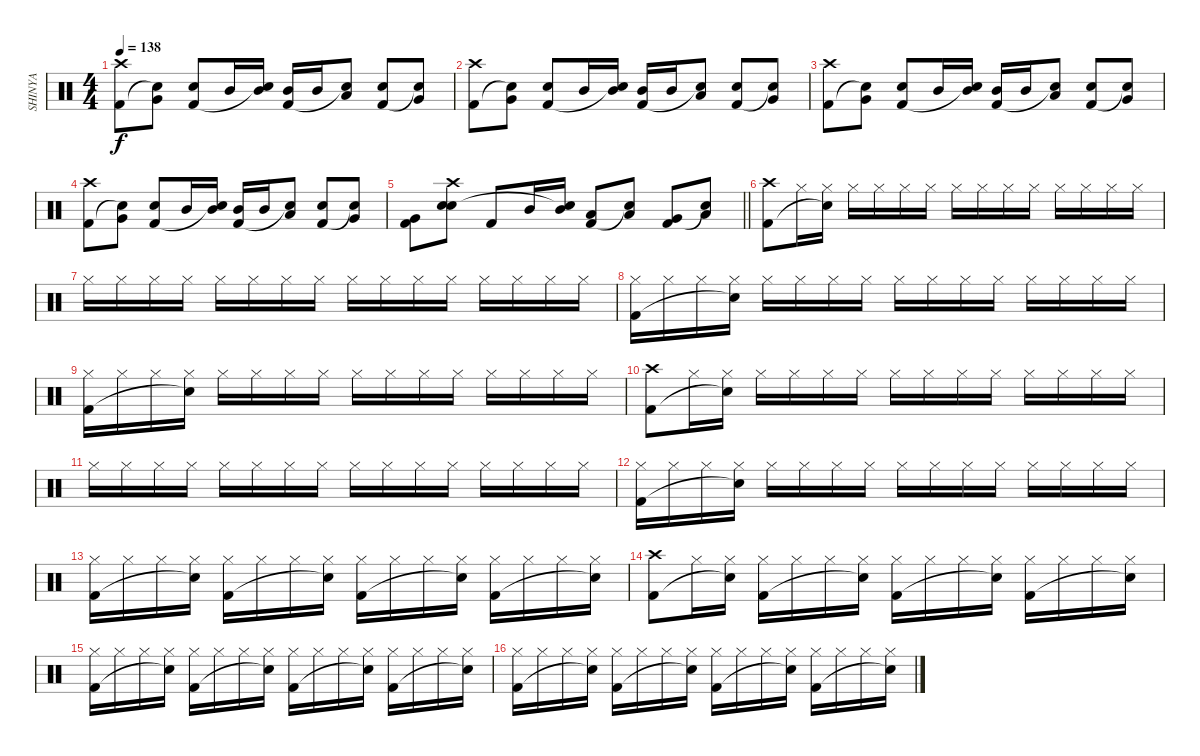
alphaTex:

\track ("SHINYA" "SHINYA") {instrument percussion}
\staff {score}
\articulation defaults
\ts (4 4)
\tempo 138
\clef neutral
\ks c
("Crash high (hit)" "Kick (hit) 2").8{dy f} ("Very Low Tom (hit)" "Snare (hit)"{t}).8 ("Electric Snare (hit)" "Kick (hit) 2").8 "Mid Tom (hit)".16 ("Mid Tom (hit)" "Snare (hit)"{t}).16 ("Mid Tom (hit)" "Kick (hit) 2").16 "Mid Tom (hit)".16 ("Low Tom (hit)" "Snare (hit)"{t}).8 ("Electric Snare (hit)" "Kick (hit) 2").8 ("Very Low Tom (hit)" "Snare (hit)"{t}).8 |
("Crash high (hit)" "Kick (hit) 2").8 ("Very Low Tom (hit)" "Snare (hit)"{t}).8 ("Electric Snare (hit)" "Kick (hit) 2").8 "Mid Tom (hit)".16 ("Mid Tom (hit)" "Snare (hit)"{t}).16 ("Mid Tom (hit)" "Kick (hit) 2").16 "Mid Tom (hit)".16 ("Low Tom (hit)" "Snare (hit)"{t}).8 ("Electric Snare (hit)" "Kick (hit) 2").8 ("Very Low Tom (hit)" "Snare (hit)"{t}).8 |
("Crash high (hit)" "Kick (hit) 2").8 ("Very Low Tom (hit)" "Snare (hit)"{t}).8 ("Electric Snare (hit)" "Kick (hit) 2").8 "Mid Tom (hit)".16 ("Mid Tom (hit)" "Snare (hit)"{t}).16 ("Mid Tom (hit)" "Kick (hit) 2").16 "Mid Tom (hit)".16 ("Low Tom (hit)" "Snare (hit)"{t}).8 ("Electric Snare (hit)" "Kick (hit) 2").8 ("Very Low Tom (hit)" "Snare (hit)"{t}).8 |
("Crash high (hit)" "Kick (hit) 2").8 ("Very Low Tom (hit)" "Snare (hit)"{t}).8 ("Electric Snare (hit)" "Kick (hit) 2").8 "Mid Tom (hit)".16 ("Mid Tom (hit)" "Snare (hit)"{t}).16 ("Mid Tom (hit)" "Kick (hit) 2").16 "Mid Tom (hit)".16 ("Low Tom (hit)" "Snare (hit)"{t}).8 ("Electric Snare (hit)" "Kick (hit) 2").8 ("Very Low Tom (hit)" "Snare (hit)"{t}).8 |
\barLineRight lightlight
("Very Low Tom (hit)" "Kick (hit) 2").8 ("Crash high (hit)" "Electric Snare (hit)" "Snare (hit)").8 "Kick (hit) 2".8 "Mid Tom (hit)".16 ("Mid Tom (hit)" "Snare (hit)"{t}).16 ("Low Tom (hit)" "Kick (hit) 2").8 ("Low Tom (hit)" "Snare (hit)"{t}).8 ("Very Low Tom (hit)" "Kick (hit) 2").8 ("Low Floor Tom (hit)" "Snare (hit)"{t}).8 |
("Crash high (hit)" "Kick (hit) 2").8 "Hi-Hat (closed)".16 ("Hi-Hat (closed)" "Snare (hit)"{t}).16 "Hi-Hat (closed)".16 "Hi-Hat (closed)".16 "Hi-Hat (closed)".16 "Hi-Hat (closed)".16 "Hi-Hat (closed)".16 "Hi-Hat (closed)".16 "Hi-Hat (closed)".16 "Hi-Hat (closed)".16 "Hi-Hat (closed)".16 "Hi-Hat (closed)".16 "Hi-Hat (closed)".16 "Hi-Hat (closed)".16 |
"Hi-Hat (closed)".16 "Hi-Hat (closed)".16 "Hi-Hat (closed)".16 "Hi-Hat (closed)".16 "Hi-Hat (closed)".16 "Hi-Hat (closed)".16 "Hi-Hat (closed)".16 "Hi-Hat (closed)".16 "Hi-Hat (closed)".16 "Hi-Hat (closed)".16 "Hi-Hat (closed)".16 "Hi-Hat (closed)".16 "Hi-Hat (closed)".16 "Hi-Hat (closed)".16 "Hi-Hat (closed)".16 "Hi-Hat (closed)".16 |
("Hi-Hat (closed)" "Kick (hit) 2").16 "Hi-Hat (closed)".16 "Hi-Hat (closed)".16 ("Hi-Hat (closed)" "Snare (hit)"{t}).16 "Hi-Hat (closed)".16 "Hi-Hat (closed)".16 "Hi-Hat (closed)".16 "Hi-Hat (closed)".16 "Hi-Hat (closed)".16 "Hi-Hat (closed)".16 "Hi-Hat (closed)".16 "Hi-Hat (closed)".16 "Hi-Hat (closed)".16 "Hi-Hat (closed)".16 "Hi-Hat (closed)".16 "Hi-Hat (closed)".16 |
("Hi-Hat (closed)" "Kick (hit) 2").16 "Hi-Hat (closed)".16 "Hi-Hat (closed)".16 ("Hi-Hat (closed)" "Snare (hit)"{t}).16 "Hi-Hat (closed)".16 "Hi-Hat (closed)".16 "Hi-Hat (closed)".16 "Hi-Hat (closed)".16 "Hi-Hat (closed)".16 "Hi-Hat (closed)".16 "Hi-Hat (closed)".16 "Hi-Hat (closed)".16 "Hi-Hat (closed)".16 "Hi-Hat (closed)".16 "Hi-Hat (closed)".16 "Hi-Hat (closed)".16 |
("Crash high (hit)" "Kick (hit) 2").8 "Hi-Hat (closed)".16 ("Hi-Hat (closed)" "Snare (hit)"{t}).16 "Hi-Hat (closed)".16 "Hi-Hat (closed)".16 "Hi-Hat (closed)".16 "Hi-Hat (closed)".16 "Hi-Hat (closed)".16 "Hi-Hat (closed)".16 "Hi-Hat (closed)".16 "Hi-Hat (closed)".16 "Hi-Hat (closed)".16 "Hi-Hat (closed)".16 "Hi-Hat (closed)".16 "Hi-Hat (closed)".16 |
"Hi-Hat (closed)".16 "Hi-Hat (closed)".16 "Hi-Hat (closed)".16 "Hi-Hat (closed)".16 "Hi-Hat (closed)".16 "Hi-Hat (closed)".16 "Hi-Hat (closed)".16 "Hi-Hat (closed)".16 "Hi-Hat (closed)".16 "Hi-Hat (closed)".16 "Hi-Hat (closed)".16 "Hi-Hat (closed)".16 "Hi-Hat (closed)".16 "Hi-Hat (closed)".16 "Hi-Hat (closed)".16 "Hi-Hat (closed)".16 |
("Hi-Hat (closed)" "Kick (hit) 2").16 "Hi-Hat (closed)".16 "Hi-Hat (closed)".16 ("Hi-Hat (closed)" "Snare (hit)"{t}).16 "Hi-Hat (closed)".16 "Hi-Hat (closed)".16 "Hi-Hat (closed)".16 "Hi-Hat (closed)".16 "Hi-Hat (closed)".16 "Hi-Hat (closed)".16 "Hi-Hat (closed)".16 "Hi-Hat (closed)".16 "Hi-Hat (closed)".16 "Hi-Hat (closed)".16 "Hi-Hat (closed)".16 "Hi-Hat (closed)".16 |
("Hi-Hat (closed)" "Kick (hit) 2").16 "Hi-Hat (closed)".16 "Hi-Hat (closed)".16 ("Hi-Hat (closed)" "Snare (hit)"{t}).16 ("Hi-Hat (closed)" "Kick (hit) 2").16 "Hi-Hat (closed)".16 "Hi-Hat (closed)".16 ("Hi-Hat (closed)" "Snare (hit)"{t}).16 ("Hi-Hat (closed)" "Kick (hit) 2").16 "Hi-Hat (closed)".16 "Hi-Hat (closed)".16 ("Hi-Hat (closed)" "Snare (hit)"{t}).16 ("Hi-Hat (closed)" "Kick (hit) 2").16 "Hi-Hat (closed)".16 "Hi-Hat (closed)".16 ("Hi-Hat (closed)" "Snare (hit)"{t}).16 |
("Crash high (hit)" "Kick (hit) 2").8 "Hi-Hat (closed)".16 ("Hi-Hat (closed)" "Snare (hit)"{t}).16 ("Hi-Hat (closed)" "Kick (hit) 2").16 "Hi-Hat (closed)".16 "Hi-Hat (closed)".16 ("Hi-Hat (closed)" "Snare (hit)"{t}).16 ("Hi-Hat (closed)" "Kick (hit) 2").16 "Hi-Hat (closed)".16 "Hi-Hat (closed)".16 ("Hi-Hat (closed)" "Snare (hit)"{t}).16 ("Hi-Hat (closed)" "Kick (hit) 2").16 "Hi-Hat (closed)".16 "Hi-Hat (closed)".16 ("Hi-Hat (closed)" "Snare (hit)"{t}).16 |
("Hi-Hat (closed)" "Kick (hit) 2").16 "Hi-Hat (closed)".16 "Hi-Hat (closed)".16 ("Hi-Hat (closed)" "Snare (hit)"{t}).16 ("Hi-Hat (closed)" "Kick (hit) 2").16 "Hi-Hat (closed)".16 "Hi-Hat (closed)".16 ("Hi-Hat (closed)" "Snare (hit)"{t}).16 ("Hi-Hat (closed)" "Kick (hit) 2").16 "Hi-Hat (closed)".16 "Hi-Hat (closed)".16 ("Hi-Hat (closed)" "Snare (hit)"{t}).16 ("Hi-Hat (closed)" "Kick (hit) 2").16 "Hi-Hat (closed)".16 "Hi-Hat (closed)".16 ("Hi-Hat (closed)" "Snare (hit)"{t}).16 |
("Hi-Hat (closed)" "Kick (hit) 2").16 "Hi-Hat (closed)".16 "Hi-Hat (closed)".16 ("Hi-Hat (closed)" "Snare (hit)"{t}).16 ("Hi-Hat (closed)" "Kick (hit) 2").16 "Hi-Hat (closed)".16 "Hi-Hat (closed)".16 ("Hi-Hat (closed)" "Snare (hit)"{t}).16 ("Hi-Hat (closed)" "Kick (hit) 2").16 "Hi-Hat (closed)".16 "Hi-Hat (closed)".16 ("Hi-Hat (closed)" "Snare (hit)"{t}).16 ("Hi-Hat (closed)" "Kick (hit) 2").16 "Hi-Hat (closed)".16 "Hi-Hat (closed)".16 ("Hi-Hat (closed)" "Snare (hit)"{t}).16
